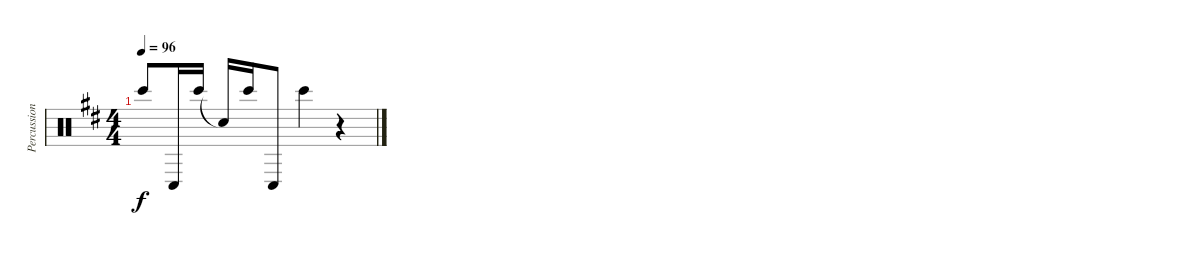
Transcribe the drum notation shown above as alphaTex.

\track ("Percussion" "Percussion") {instrument percussion}
\staff {score}
\articulation defaults
\ts (4 4)
\tempo 96
\clef neutral
\ks d "Bongo High (hit)".8{dy f} "Conga low (hit)".16 "Bongo High (hit)".16 "Snare (hit)"{t}.16 "Bongo High (hit)".16 "Conga low (hit)".8 "Bongo High (hit)".4
r.4
